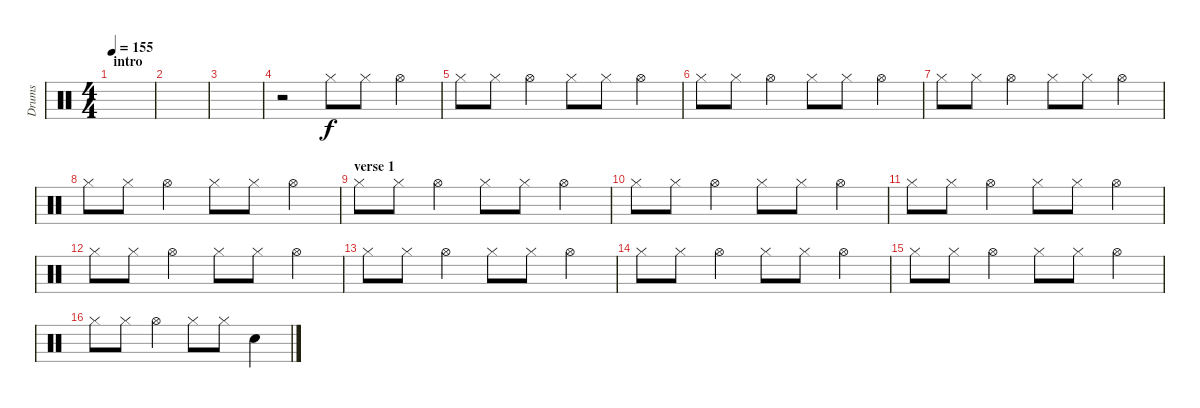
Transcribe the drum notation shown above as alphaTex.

\track ("Drums" "Drums") {instrument percussion}
\staff {score}
\articulation defaults
\ts (4 4)
\section ("" "intro")
\tempo 155
\clef neutral
\ks c
|
|
|
r.2 "Hi-Hat (closed)".8 "Hi-Hat (closed)".8 "Hi-Hat (open)".4 |
"Hi-Hat (closed)".8 "Hi-Hat (closed)".8 "Hi-Hat (open)".4 "Hi-Hat (closed)".8 "Hi-Hat (closed)".8 "Hi-Hat (open)".4 |
"Hi-Hat (closed)".8 "Hi-Hat (closed)".8 "Hi-Hat (open)".4 "Hi-Hat (closed)".8 "Hi-Hat (closed)".8 "Hi-Hat (open)".4 |
"Hi-Hat (closed)".8 "Hi-Hat (closed)".8 "Hi-Hat (open)".4 "Hi-Hat (closed)".8 "Hi-Hat (closed)".8 "Hi-Hat (open)".4 |
"Hi-Hat (closed)".8 "Hi-Hat (closed)".8 "Hi-Hat (open)".4 "Hi-Hat (closed)".8 "Hi-Hat (closed)".8 "Hi-Hat (open)".4 |
\section ("" "verse 1")
"Hi-Hat (closed)".8 "Hi-Hat (closed)".8 "Hi-Hat (open)".4 "Hi-Hat (closed)".8 "Hi-Hat (closed)".8 "Hi-Hat (open)".4 |
"Hi-Hat (closed)".8 "Hi-Hat (closed)".8 "Hi-Hat (open)".4 "Hi-Hat (closed)".8 "Hi-Hat (closed)".8 "Hi-Hat (open)".4 |
"Hi-Hat (closed)".8 "Hi-Hat (closed)".8 "Hi-Hat (open)".4 "Hi-Hat (closed)".8 "Hi-Hat (closed)".8 "Hi-Hat (open)".4 |
"Hi-Hat (closed)".8 "Hi-Hat (closed)".8 "Hi-Hat (open)".4 "Hi-Hat (closed)".8 "Hi-Hat (closed)".8 "Hi-Hat (open)".4 |
"Hi-Hat (closed)".8 "Hi-Hat (closed)".8 "Hi-Hat (open)".4 "Hi-Hat (closed)".8 "Hi-Hat (closed)".8 "Hi-Hat (open)".4 |
"Hi-Hat (closed)".8 "Hi-Hat (closed)".8 "Hi-Hat (open)".4 "Hi-Hat (closed)".8 "Hi-Hat (closed)".8 "Hi-Hat (open)".4 |
"Hi-Hat (closed)".8 "Hi-Hat (closed)".8 "Hi-Hat (open)".4 "Hi-Hat (closed)".8 "Hi-Hat (closed)".8 "Hi-Hat (open)".4 |
"Hi-Hat (closed)".8 "Hi-Hat (closed)".8 "Hi-Hat (open)".4 "Hi-Hat (closed)".8 "Hi-Hat (closed)".8 "Electric Snare (hit)".4
